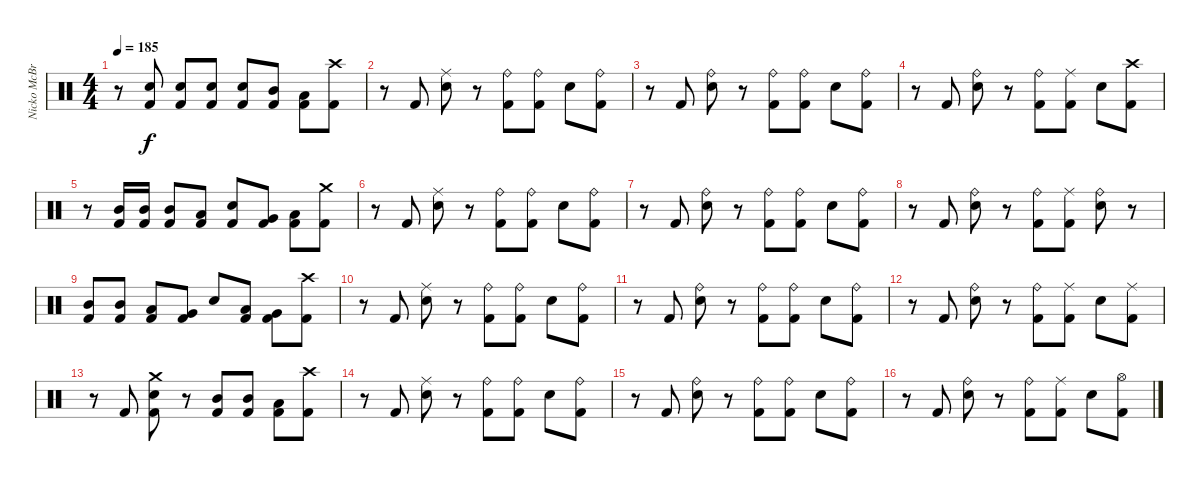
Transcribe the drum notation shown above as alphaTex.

\track ("Nicko McBrain" "Nicko McBr") {instrument percussion}
\staff {score}
\articulation defaults
\ts (4 4)
\tempo 185
\clef neutral
\ks c
r.8{dy f} ("Snare (hit) 2" "Kick (hit) 2").8 ("Snare (hit) 2" "Kick (hit) 2").8 ("Snare (hit) 2" "Kick (hit) 2").8 ("Snare (hit) 2" "Kick (hit) 2").8 ("Mid Tom (hit)" "Kick (hit) 2").8 ("Low Tom (hit)" "Kick (hit) 2").8 ("Crash high (hit)" "Kick (hit) 2").8 |
r.8 "Kick (hit) 2".8 ("Ride (middle)" "Snare (hit) 2").8 r.8 ("Ride (bell)" "Kick (hit) 2").8 ("Ride (bell)" "Kick (hit) 2").8 "Snare (hit) 2".8 ("Ride (bell)" "Kick (hit) 2").8 |
r.8 "Kick (hit) 2".8 ("Ride (bell)" "Snare (hit) 2").8 r.8 ("Ride (bell)" "Kick (hit) 2").8 ("Ride (bell)" "Kick (hit) 2").8 "Snare (hit) 2".8 ("Ride (bell)" "Kick (hit) 2").8 |
r.8 "Kick (hit) 2".8 ("Ride (bell)" "Snare (hit) 2").8 r.8 ("Ride (bell)" "Kick (hit) 2").8 ("Ride (middle)" "Kick (hit) 2").8 "Snare (hit) 2".8 ("Crash high (hit)" "Kick (hit) 2").8 |
r.8 ("Mid Tom (hit)" "Kick (hit) 2").16 ("Mid Tom (hit)" "Kick (hit) 2").16 ("Mid Tom (hit)" "Kick (hit) 2").8 ("Low Tom (hit)" "Kick (hit) 2").8 ("Snare (hit) 2" "Kick (hit) 2").8 ("Very Low Tom (hit)" "Kick (hit) 2").8 ("Low Floor Tom (hit)" "Kick (hit) 2").8 ("Crash medium (hit)" "Kick (hit) 2").8 |
r.8 "Kick (hit) 2".8 ("Ride (middle)" "Snare (hit) 2").8 r.8 ("Ride (bell)" "Kick (hit) 2").8 ("Ride (bell)" "Kick (hit) 2").8 "Snare (hit) 2".8 ("Ride (bell)" "Kick (hit) 2").8 |
r.8 "Kick (hit) 2".8 ("Ride (bell)" "Snare (hit) 2").8 r.8 ("Ride (bell)" "Kick (hit) 2").8 ("Ride (bell)" "Kick (hit) 2").8 "Snare (hit) 2".8 ("Ride (bell)" "Kick (hit) 2").8 |
r.8 "Kick (hit) 2".8 ("Ride (bell)" "Snare (hit) 2").8 r.8 ("Ride (bell)" "Kick (hit) 2").8 ("Ride (middle)" "Kick (hit) 2").8 ("Ride (bell)" "Snare (hit) 2").8 r.8 |
("Mid Tom (hit)" "Kick (hit) 2").8 ("Mid Tom (hit)" "Kick (hit) 2").8 ("Low Tom (hit)" "Kick (hit) 2").8 ("Very Low Tom (hit)" "Kick (hit) 2").8 "Snare (hit) 2".8 ("Low Tom (hit)" "Kick (hit) 2").8 ("Very Low Tom (hit)" "Kick (hit) 2").8 ("Crash high (hit)" "Kick (hit) 2").8 |
r.8 "Kick (hit) 2".8 ("Ride (middle)" "Snare (hit) 2").8 r.8 ("Ride (bell)" "Kick (hit) 2").8 ("Ride (bell)" "Kick (hit) 2").8 "Snare (hit) 2".8 ("Ride (bell)" "Kick (hit) 2").8 |
r.8 "Kick (hit) 2".8 ("Ride (bell)" "Snare (hit) 2").8 r.8 ("Ride (bell)" "Kick (hit) 2").8 ("Ride (bell)" "Kick (hit) 2").8 "Snare (hit) 2".8 ("Ride (bell)" "Kick (hit) 2").8 |
r.8 "Kick (hit) 2".8 ("Ride (bell)" "Snare (hit) 2").8 r.8 ("Ride (bell)" "Kick (hit) 2").8 ("Ride (middle)" "Kick (hit) 2").8 "Snare (hit) 2".8 ("Ride (middle)" "Kick (hit) 2").8 |
r.8 "Kick (hit) 2".8 ("Crash medium (hit)" "Snare (hit) 2" "Kick (hit) 2").8 r.8 ("Mid Tom (hit)" "Kick (hit) 2").8 ("Mid Tom (hit)" "Kick (hit) 2").8 ("Low Tom (hit)" "Kick (hit) 2").8 ("Crash high (hit)" "Kick (hit) 2").8 |
r.8 "Kick (hit) 2".8 ("Ride (middle)" "Snare (hit) 2").8 r.8 ("Ride (bell)" "Kick (hit) 2").8 ("Ride (bell)" "Kick (hit) 2").8 "Snare (hit) 2".8 ("Ride (bell)" "Kick (hit) 2").8 |
r.8 "Kick (hit) 2".8 ("Ride (bell)" "Snare (hit) 2").8 r.8 ("Ride (bell)" "Kick (hit) 2").8 ("Ride (bell)" "Kick (hit) 2").8 "Snare (hit) 2".8 ("Ride (bell)" "Kick (hit) 2").8 |
r.8 "Kick (hit) 2".8 ("Ride (bell)" "Snare (hit) 2").8 r.8 ("Ride (bell)" "Kick (hit) 2").8 ("Ride (middle)" "Kick (hit) 2").8 "Snare (hit) 2".8 ("Hi-Hat (open)" "Kick (hit) 2").8
